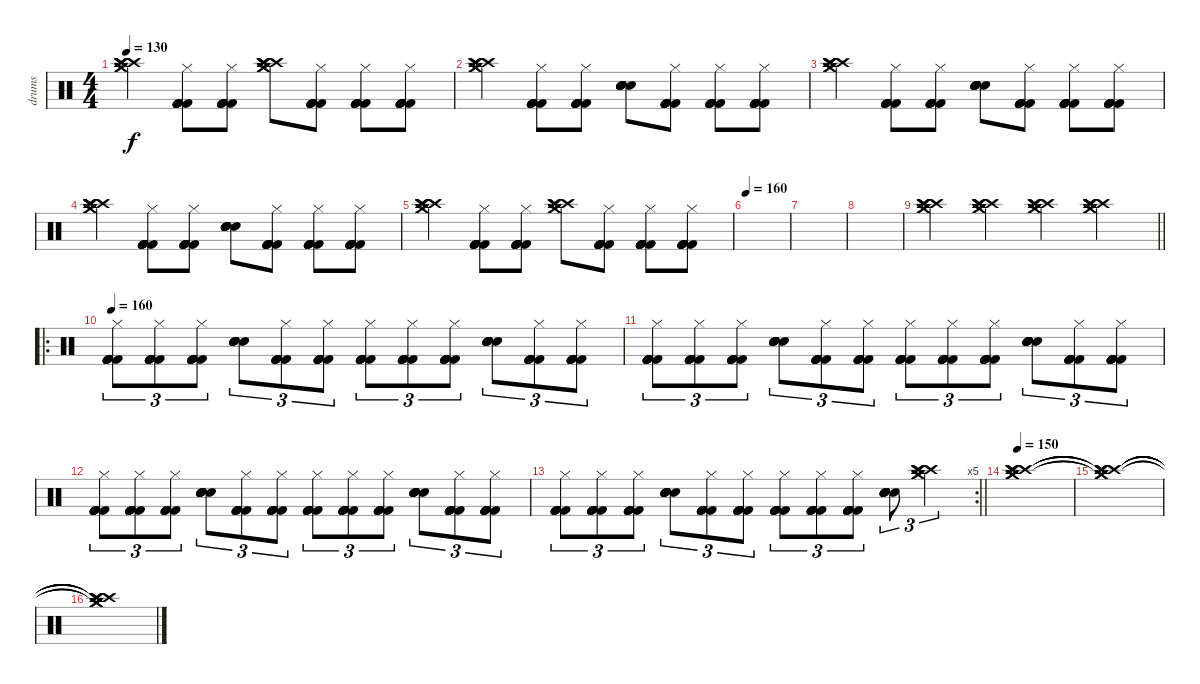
\track ("drums" "drums") {instrument percussion}
\staff {score}
\articulation defaults
\ts (4 4)
\tempo 130
\clef neutral
\ks c
("Crash medium (hit)" "Crash medium (hit)" "Crash high (hit)" "Crash high (hit)" "Crash high (hit)" "Crash high (hit)").4{dy f} ("Kick (hit) 2" "Kick (hit) 2" "Kick (hit) 2" "Hi-Hat (closed)" "Kick (hit) 2" "Kick (hit) 2").8 ("Kick (hit) 2" "Kick (hit) 2" "Kick (hit) 2" "Hi-Hat (closed)" "Kick (hit) 2" "Kick (hit) 2").8 ("Crash medium (hit)" "Crash medium (hit)" "Crash high (hit)" "Crash high (hit)" "Crash high (hit)" "Crash high (hit)").8 ("Kick (hit) 2" "Kick (hit) 2" "Kick (hit) 2" "Hi-Hat (closed)" "Kick (hit) 2" "Kick (hit) 2").8 ("Kick (hit) 2" "Kick (hit) 2" "Kick (hit) 2" "Hi-Hat (closed)" "Kick (hit) 2" "Kick (hit) 2").8 ("Kick (hit) 2" "Kick (hit) 2" "Kick (hit) 2" "Hi-Hat (closed)" "Kick (hit) 2" "Kick (hit) 2").8 |
("Crash medium (hit)" "Crash medium (hit)" "Crash high (hit)" "Crash high (hit)" "Crash high (hit)" "Crash high (hit)").4 ("Kick (hit) 2" "Kick (hit) 2" "Kick (hit) 2" "Hi-Hat (closed)" "Kick (hit) 2" "Kick (hit) 2").8 ("Kick (hit) 2" "Kick (hit) 2" "Kick (hit) 2" "Hi-Hat (closed)" "Kick (hit) 2" "Kick (hit) 2").8 ("Snare (hit) 2" "Snare (hit) 2" "Snare (hit) 2" "Electric Snare (hit)" "Electric Snare (hit)" "Electric Snare (hit)").8 ("Kick (hit) 2" "Kick (hit) 2" "Kick (hit) 2" "Hi-Hat (closed)" "Kick (hit) 2" "Kick (hit) 2").8 ("Kick (hit) 2" "Kick (hit) 2" "Kick (hit) 2" "Hi-Hat (closed)" "Kick (hit) 2" "Kick (hit) 2").8 ("Kick (hit) 2" "Kick (hit) 2" "Kick (hit) 2" "Hi-Hat (closed)" "Kick (hit) 2" "Kick (hit) 2").8 |
("Crash medium (hit)" "Crash medium (hit)" "Crash high (hit)" "Crash high (hit)" "Crash high (hit)" "Crash high (hit)").4 ("Kick (hit) 2" "Kick (hit) 2" "Kick (hit) 2" "Hi-Hat (closed)" "Kick (hit) 2" "Kick (hit) 2").8 ("Kick (hit) 2" "Kick (hit) 2" "Kick (hit) 2" "Hi-Hat (closed)" "Kick (hit) 2" "Kick (hit) 2").8 ("Snare (hit) 2" "Snare (hit) 2" "Snare (hit) 2" "Electric Snare (hit)" "Electric Snare (hit)" "Electric Snare (hit)").8 ("Kick (hit) 2" "Kick (hit) 2" "Kick (hit) 2" "Hi-Hat (closed)" "Kick (hit) 2" "Kick (hit) 2").8 ("Kick (hit) 2" "Kick (hit) 2" "Kick (hit) 2" "Hi-Hat (closed)" "Kick (hit) 2" "Kick (hit) 2").8 ("Kick (hit) 2" "Kick (hit) 2" "Kick (hit) 2" "Hi-Hat (closed)" "Kick (hit) 2" "Kick (hit) 2").8 |
("Crash medium (hit)" "Crash medium (hit)" "Crash high (hit)" "Crash high (hit)" "Crash high (hit)" "Crash high (hit)").4 ("Kick (hit) 2" "Kick (hit) 2" "Kick (hit) 2" "Hi-Hat (closed)" "Kick (hit) 2" "Kick (hit) 2").8 ("Kick (hit) 2" "Kick (hit) 2" "Kick (hit) 2" "Hi-Hat (closed)" "Kick (hit) 2" "Kick (hit) 2").8 ("Snare (hit) 2" "Snare (hit) 2" "Snare (hit) 2" "Electric Snare (hit)" "Electric Snare (hit)" "Electric Snare (hit)").8 ("Kick (hit) 2" "Kick (hit) 2" "Kick (hit) 2" "Hi-Hat (closed)" "Kick (hit) 2" "Kick (hit) 2").8 ("Kick (hit) 2" "Kick (hit) 2" "Kick (hit) 2" "Hi-Hat (closed)" "Kick (hit) 2" "Kick (hit) 2").8 ("Kick (hit) 2" "Kick (hit) 2" "Kick (hit) 2" "Hi-Hat (closed)" "Kick (hit) 2" "Kick (hit) 2").8 |
("Crash medium (hit)" "Crash medium (hit)" "Crash high (hit)" "Crash high (hit)" "Crash high (hit)" "Crash high (hit)").4 ("Kick (hit) 2" "Kick (hit) 2" "Kick (hit) 2" "Hi-Hat (closed)" "Kick (hit) 2" "Kick (hit) 2").8 ("Kick (hit) 2" "Kick (hit) 2" "Kick (hit) 2" "Hi-Hat (closed)" "Kick (hit) 2" "Kick (hit) 2").8 ("Crash medium (hit)" "Crash medium (hit)" "Crash high (hit)" "Crash high (hit)" "Crash high (hit)" "Crash high (hit)").8 ("Kick (hit) 2" "Kick (hit) 2" "Kick (hit) 2" "Hi-Hat (closed)" "Kick (hit) 2" "Kick (hit) 2").8 ("Kick (hit) 2" "Kick (hit) 2" "Kick (hit) 2" "Hi-Hat (closed)" "Kick (hit) 2" "Kick (hit) 2").8 ("Kick (hit) 2" "Kick (hit) 2" "Kick (hit) 2" "Hi-Hat (closed)" "Kick (hit) 2" "Kick (hit) 2").8 |
\tempo 160
|
|
|
\barLineRight lightlight
("Crash medium (hit)" "Crash medium (hit)" "Crash high (hit)" "Crash high (hit)" "Crash high (hit)" "Crash high (hit)").4 ("Crash medium (hit)" "Crash medium (hit)" "Crash high (hit)" "Crash high (hit)" "Crash high (hit)" "Crash high (hit)").4 ("Crash medium (hit)" "Crash medium (hit)" "Crash high (hit)" "Crash high (hit)" "Crash high (hit)" "Crash high (hit)").4 ("Crash medium (hit)" "Crash medium (hit)" "Crash high (hit)" "Crash high (hit)" "Crash high (hit)" "Crash high (hit)").4 |
\ro
\tempo 160
("Kick (hit) 2" "Kick (hit) 2" "Kick (hit) 2" "Hi-Hat (closed)" "Kick (hit) 2" "Kick (hit) 2").8{tu (3 2)} ("Kick (hit) 2" "Kick (hit) 2" "Kick (hit) 2" "Hi-Hat (closed)" "Kick (hit) 2" "Kick (hit) 2").8{tu (3 2)} ("Kick (hit) 2" "Kick (hit) 2" "Kick (hit) 2" "Hi-Hat (closed)" "Kick (hit) 2" "Kick (hit) 2").8{tu (3 2)} ("Snare (hit) 2" "Snare (hit) 2" "Snare (hit) 2" "Electric Snare (hit)" "Electric Snare (hit)" "Electric Snare (hit)").8{tu (3 2)} ("Kick (hit) 2" "Kick (hit) 2" "Kick (hit) 2" "Hi-Hat (closed)" "Kick (hit) 2" "Kick (hit) 2").8{tu (3 2)} ("Kick (hit) 2" "Kick (hit) 2" "Kick (hit) 2" "Hi-Hat (closed)" "Kick (hit) 2" "Kick (hit) 2").8{tu (3 2)} ("Kick (hit) 2" "Kick (hit) 2" "Kick (hit) 2" "Hi-Hat (closed)" "Kick (hit) 2" "Kick (hit) 2").8{tu (3 2)} ("Kick (hit) 2" "Kick (hit) 2" "Kick (hit) 2" "Hi-Hat (closed)" "Kick (hit) 2" "Kick (hit) 2").8{tu (3 2)} ("Kick (hit) 2" "Kick (hit) 2" "Kick (hit) 2" "Hi-Hat (closed)" "Kick (hit) 2" "Kick (hit) 2").8{tu (3 2)} ("Snare (hit) 2" "Snare (hit) 2" "Snare (hit) 2" "Electric Snare (hit)" "Electric Snare (hit)" "Electric Snare (hit)").8{tu (3 2)} ("Kick (hit) 2" "Kick (hit) 2" "Kick (hit) 2" "Hi-Hat (closed)" "Kick (hit) 2" "Kick (hit) 2").8{tu (3 2)} ("Kick (hit) 2" "Kick (hit) 2" "Kick (hit) 2" "Hi-Hat (closed)" "Kick (hit) 2" "Kick (hit) 2").8{tu (3 2)} |
("Kick (hit) 2" "Kick (hit) 2" "Kick (hit) 2" "Hi-Hat (closed)" "Kick (hit) 2" "Kick (hit) 2").8{tu (3 2)} ("Kick (hit) 2" "Kick (hit) 2" "Kick (hit) 2" "Hi-Hat (closed)" "Kick (hit) 2" "Kick (hit) 2").8{tu (3 2)} ("Kick (hit) 2" "Kick (hit) 2" "Kick (hit) 2" "Hi-Hat (closed)" "Kick (hit) 2" "Kick (hit) 2").8{tu (3 2)} ("Snare (hit) 2" "Snare (hit) 2" "Snare (hit) 2" "Electric Snare (hit)" "Electric Snare (hit)" "Electric Snare (hit)").8{tu (3 2)} ("Kick (hit) 2" "Kick (hit) 2" "Kick (hit) 2" "Hi-Hat (closed)" "Kick (hit) 2" "Kick (hit) 2").8{tu (3 2)} ("Kick (hit) 2" "Kick (hit) 2" "Kick (hit) 2" "Hi-Hat (closed)" "Kick (hit) 2" "Kick (hit) 2").8{tu (3 2)} ("Kick (hit) 2" "Kick (hit) 2" "Kick (hit) 2" "Hi-Hat (closed)" "Kick (hit) 2" "Kick (hit) 2").8{tu (3 2)} ("Kick (hit) 2" "Kick (hit) 2" "Kick (hit) 2" "Hi-Hat (closed)" "Kick (hit) 2" "Kick (hit) 2").8{tu (3 2)} ("Kick (hit) 2" "Kick (hit) 2" "Kick (hit) 2" "Hi-Hat (closed)" "Kick (hit) 2" "Kick (hit) 2").8{tu (3 2)} ("Snare (hit) 2" "Snare (hit) 2" "Snare (hit) 2" "Electric Snare (hit)" "Electric Snare (hit)" "Electric Snare (hit)").8{tu (3 2)} ("Kick (hit) 2" "Kick (hit) 2" "Kick (hit) 2" "Hi-Hat (closed)" "Kick (hit) 2" "Kick (hit) 2").8{tu (3 2)} ("Kick (hit) 2" "Kick (hit) 2" "Kick (hit) 2" "Hi-Hat (closed)" "Kick (hit) 2" "Kick (hit) 2").8{tu (3 2)} |
("Kick (hit) 2" "Kick (hit) 2" "Kick (hit) 2" "Hi-Hat (closed)" "Kick (hit) 2" "Kick (hit) 2").8{tu (3 2)} ("Kick (hit) 2" "Kick (hit) 2" "Kick (hit) 2" "Hi-Hat (closed)" "Kick (hit) 2" "Kick (hit) 2").8{tu (3 2)} ("Kick (hit) 2" "Kick (hit) 2" "Kick (hit) 2" "Hi-Hat (closed)" "Kick (hit) 2" "Kick (hit) 2").8{tu (3 2)} ("Snare (hit) 2" "Snare (hit) 2" "Snare (hit) 2" "Electric Snare (hit)" "Electric Snare (hit)" "Electric Snare (hit)").8{tu (3 2)} ("Kick (hit) 2" "Kick (hit) 2" "Kick (hit) 2" "Hi-Hat (closed)" "Kick (hit) 2" "Kick (hit) 2").8{tu (3 2)} ("Kick (hit) 2" "Kick (hit) 2" "Kick (hit) 2" "Hi-Hat (closed)" "Kick (hit) 2" "Kick (hit) 2").8{tu (3 2)} ("Kick (hit) 2" "Kick (hit) 2" "Kick (hit) 2" "Hi-Hat (closed)" "Kick (hit) 2" "Kick (hit) 2").8{tu (3 2)} ("Kick (hit) 2" "Kick (hit) 2" "Kick (hit) 2" "Hi-Hat (closed)" "Kick (hit) 2" "Kick (hit) 2").8{tu (3 2)} ("Kick (hit) 2" "Kick (hit) 2" "Kick (hit) 2" "Hi-Hat (closed)" "Kick (hit) 2" "Kick (hit) 2").8{tu (3 2)} ("Snare (hit) 2" "Snare (hit) 2" "Snare (hit) 2" "Electric Snare (hit)" "Electric Snare (hit)" "Electric Snare (hit)").8{tu (3 2)} ("Kick (hit) 2" "Kick (hit) 2" "Kick (hit) 2" "Hi-Hat (closed)" "Kick (hit) 2" "Kick (hit) 2").8{tu (3 2)} ("Kick (hit) 2" "Kick (hit) 2" "Kick (hit) 2" "Hi-Hat (closed)" "Kick (hit) 2" "Kick (hit) 2").8{tu (3 2)} |
\rc 5
\barLineRight lightlight
("Kick (hit) 2" "Kick (hit) 2" "Kick (hit) 2" "Hi-Hat (closed)" "Kick (hit) 2" "Kick (hit) 2").8{tu (3 2)} ("Kick (hit) 2" "Kick (hit) 2" "Kick (hit) 2" "Hi-Hat (closed)" "Kick (hit) 2" "Kick (hit) 2").8{tu (3 2)} ("Kick (hit) 2" "Kick (hit) 2" "Kick (hit) 2" "Hi-Hat (closed)" "Kick (hit) 2" "Kick (hit) 2").8{tu (3 2)} ("Snare (hit) 2" "Snare (hit) 2" "Snare (hit) 2" "Electric Snare (hit)" "Electric Snare (hit)" "Electric Snare (hit)").8{tu (3 2)} ("Kick (hit) 2" "Kick (hit) 2" "Kick (hit) 2" "Hi-Hat (closed)" "Kick (hit) 2" "Kick (hit) 2").8{tu (3 2)} ("Kick (hit) 2" "Kick (hit) 2" "Kick (hit) 2" "Hi-Hat (closed)" "Kick (hit) 2" "Kick (hit) 2").8{tu (3 2)} ("Kick (hit) 2" "Kick (hit) 2" "Kick (hit) 2" "Hi-Hat (closed)" "Kick (hit) 2" "Kick (hit) 2").8{tu (3 2)} ("Kick (hit) 2" "Kick (hit) 2" "Kick (hit) 2" "Hi-Hat (closed)" "Kick (hit) 2" "Kick (hit) 2").8{tu (3 2)} ("Kick (hit) 2" "Kick (hit) 2" "Kick (hit) 2" "Hi-Hat (closed)" "Kick (hit) 2" "Kick (hit) 2").8{tu (3 2)} ("Snare (hit) 2" "Snare (hit) 2" "Snare (hit) 2" "Electric Snare (hit)" "Electric Snare (hit)" "Electric Snare (hit)").8{tu (3 2)} ("Crash medium (hit)" "Crash medium (hit)" "Crash high (hit)" "Crash high (hit)" "Crash high (hit)" "Crash high (hit)").4{tu (3 2)} |
\tempo 150
("Crash medium (hit)" "Crash medium (hit)" "Crash high (hit)" "Crash high (hit)" "Crash high (hit)" "Crash high (hit)").1 |
("Crash medium (hit)"{t} "Crash medium (hit)"{t} "Crash high (hit)"{t} "Crash high (hit)"{t} "Crash high (hit)"{t} "Crash high (hit)"{t}).1 |
("Crash medium (hit)"{t} "Crash medium (hit)"{t} "Crash high (hit)"{t} "Crash high (hit)"{t} "Crash high (hit)"{t} "Crash high (hit)"{t}).1
